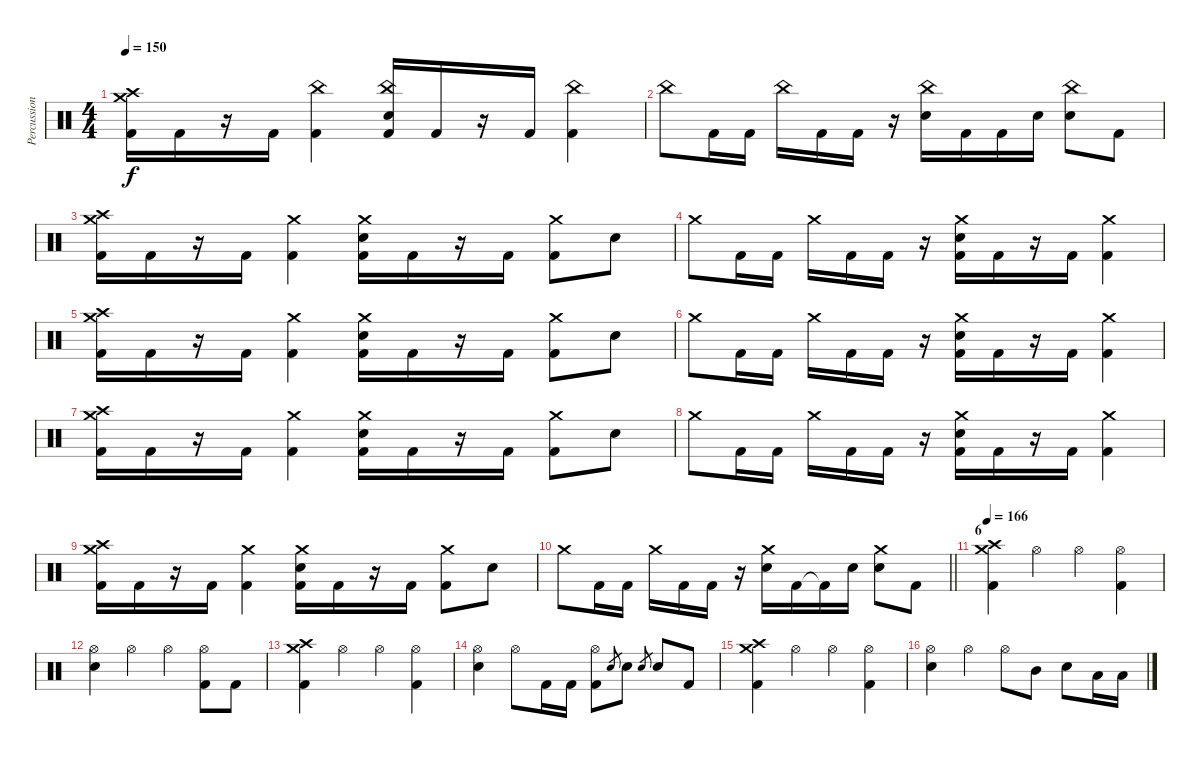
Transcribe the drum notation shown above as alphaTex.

\track ("Percussion" "Percussion") {instrument percussion}
\staff {score}
\articulation defaults
\ts (4 4)
\tempo 150
\clef neutral
\ks c
("Crash medium (hit)" "Crash high (hit)" "Kick (hit) 2").16{dy f} "Kick (hit) 2".16 r.16 "Kick (hit) 2".16 ("China (hit)" "Kick (hit) 2").4 ("China (hit)" "Electric Snare (hit)" "Kick (hit) 2").16 "Kick (hit) 2".16 r.16 "Kick (hit) 2".16 ("China (hit)" "Kick (hit) 2").4 |
"China (hit)".8 "Kick (hit) 2".16 "Kick (hit) 2".16 "China (hit)".16 "Kick (hit) 2".16 "Kick (hit) 2".16 r.16 ("China (hit)" "Electric Snare (hit)").16 "Kick (hit) 2".16 "Kick (hit) 2".16 "Electric Snare (hit)".16 ("China (hit)" "Electric Snare (hit)").8 "Kick (hit) 2".8 |
("Crash medium (hit)" "Crash high (hit)" "Kick (hit) 2").16 "Kick (hit) 2".16 r.16 "Kick (hit) 2".16 ("Crash medium (hit)" "Kick (hit) 2").4 ("Crash medium (hit)" "Electric Snare (hit)" "Kick (hit) 2").16 "Kick (hit) 2".16 r.16 "Kick (hit) 2".16 ("Crash medium (hit)" "Kick (hit) 2").8 "Electric Snare (hit)".8 |
"Crash medium (hit)".8 "Kick (hit) 2".16 "Kick (hit) 2".16 "Crash medium (hit)".16 "Kick (hit) 2".16 "Kick (hit) 2".16 r.16 ("Crash medium (hit)" "Electric Snare (hit)" "Kick (hit) 2").16 "Kick (hit) 2".16 r.16 "Kick (hit) 2".16 ("Crash medium (hit)" "Kick (hit) 2").4 |
("Crash medium (hit)" "Crash high (hit)" "Kick (hit) 2").16 "Kick (hit) 2".16 r.16 "Kick (hit) 2".16 ("Crash medium (hit)" "Kick (hit) 2").4 ("Crash medium (hit)" "Electric Snare (hit)" "Kick (hit) 2").16 "Kick (hit) 2".16 r.16 "Kick (hit) 2".16 ("Crash medium (hit)" "Kick (hit) 2").8 "Electric Snare (hit)".8 |
"Crash medium (hit)".8 "Kick (hit) 2".16 "Kick (hit) 2".16 "Crash medium (hit)".16 "Kick (hit) 2".16 "Kick (hit) 2".16 r.16 ("Crash medium (hit)" "Electric Snare (hit)" "Kick (hit) 2").16 "Kick (hit) 2".16 r.16 "Kick (hit) 2".16 ("Crash medium (hit)" "Kick (hit) 2").4 |
("Crash medium (hit)" "Crash high (hit)" "Kick (hit) 2").16 "Kick (hit) 2".16 r.16 "Kick (hit) 2".16 ("Crash medium (hit)" "Kick (hit) 2").4 ("Crash medium (hit)" "Electric Snare (hit)" "Kick (hit) 2").16 "Kick (hit) 2".16 r.16 "Kick (hit) 2".16 ("Crash medium (hit)" "Kick (hit) 2").8 "Electric Snare (hit)".8 |
"Crash medium (hit)".8 "Kick (hit) 2".16 "Kick (hit) 2".16 "Crash medium (hit)".16 "Kick (hit) 2".16 "Kick (hit) 2".16 r.16 ("Crash medium (hit)" "Electric Snare (hit)" "Kick (hit) 2").16 "Kick (hit) 2".16 r.16 "Kick (hit) 2".16 ("Crash medium (hit)" "Kick (hit) 2").4 |
("Crash medium (hit)" "Crash high (hit)" "Kick (hit) 2").16 "Kick (hit) 2".16 r.16 "Kick (hit) 2".16 ("Crash medium (hit)" "Kick (hit) 2").4 ("Crash medium (hit)" "Electric Snare (hit)" "Kick (hit) 2").16 "Kick (hit) 2".16 r.16 "Kick (hit) 2".16 ("Crash medium (hit)" "Kick (hit) 2").8 "Electric Snare (hit)".8 |
\barLineRight lightlight "Crash medium (hit)".8 "Kick (hit) 2".16 "Kick (hit) 2".16 "Crash medium (hit)".16 "Kick (hit) 2".16 "Kick (hit) 2".16
r.16 ("Crash medium (hit)" "Electric Snare (hit)").16 "Kick (hit) 2".16 "Kick (hit) 2"{t}.16 "Electric Snare (hit)".16 ("Crash medium (hit)" "Electric Snare (hit)").8 "Kick (hit) 2".8 |
\section ("" "6")
\tempo 166
("Crash medium (hit)" "Crash high (hit)" "Kick (hit) 2").4 "Hi-Hat (open)".4 "Hi-Hat (open)".4 ("Hi-Hat (open)" "Kick (hit) 2").4 |
("Hi-Hat (open)" "Electric Snare (hit)").4 "Hi-Hat (open)".4 "Hi-Hat (open)".4 ("Hi-Hat (open)" "Kick (hit) 2").8 "Kick (hit) 2".8 |
("Crash medium (hit)" "Crash high (hit)" "Kick (hit) 2").4 "Hi-Hat (open)".4 "Hi-Hat (open)".4 ("Hi-Hat (open)" "Kick (hit) 2").4 |
("Hi-Hat (open)" "Electric Snare (hit)").4 "Hi-Hat (open)".8 "Kick (hit) 2".16 "Kick (hit) 2".16 ("Hi-Hat (open)" "Kick (hit) 2").8 "Electric Snare (hit)".8{gr} "Electric Snare (hit)".8 "Electric Snare (hit)".8{gr} "Electric Snare (hit)".8 "Kick (hit) 2".8 |
("Crash medium (hit)" "Crash high (hit)" "Kick (hit) 2").4 "Hi-Hat (open)".4 "Hi-Hat (open)".4 ("Hi-Hat (open)" "Kick (hit) 2").4 |
("Hi-Hat (open)" "Electric Snare (hit)").4 "Hi-Hat (open)".4 "Hi-Hat (open)".8 "Mid Tom (hit)".8 "Electric Snare (hit)".8 "Low Tom (hit)".16 "Low Floor Tom (hit)".16
